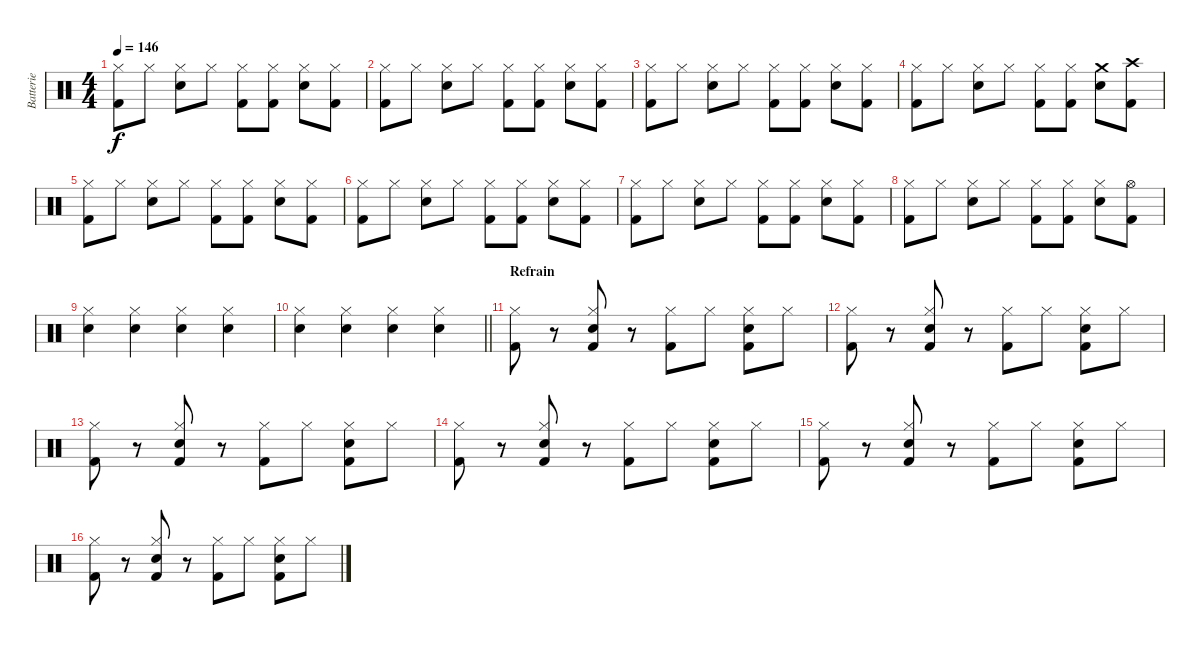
\track ("Batterie" "Batterie") {instrument percussion}
\staff {score}
\articulation defaults
\ts (4 4)
\tempo 146
\clef neutral
\ks c
("Kick (hit) 2" "Hi-Hat (closed)").8{dy f} "Hi-Hat (closed)".8 ("Snare (hit) 2" "Hi-Hat (closed)").8 "Hi-Hat (closed)".8 ("Kick (hit) 2" "Hi-Hat (closed)").8 ("Kick (hit) 2" "Hi-Hat (closed)").8 ("Snare (hit) 2" "Hi-Hat (closed)").8 ("Kick (hit) 2" "Hi-Hat (closed)").8 |
("Kick (hit) 2" "Hi-Hat (closed)").8 "Hi-Hat (closed)".8 ("Snare (hit) 2" "Hi-Hat (closed)").8 "Hi-Hat (closed)".8 ("Kick (hit) 2" "Hi-Hat (closed)").8 ("Kick (hit) 2" "Hi-Hat (closed)").8 ("Snare (hit) 2" "Hi-Hat (closed)").8 ("Kick (hit) 2" "Hi-Hat (closed)").8 |
("Kick (hit) 2" "Hi-Hat (closed)").8 "Hi-Hat (closed)".8 ("Snare (hit) 2" "Hi-Hat (closed)").8 "Hi-Hat (closed)".8 ("Kick (hit) 2" "Hi-Hat (closed)").8 ("Kick (hit) 2" "Hi-Hat (closed)").8 ("Snare (hit) 2" "Hi-Hat (closed)").8 ("Kick (hit) 2" "Hi-Hat (closed)").8 |
("Kick (hit) 2" "Hi-Hat (closed)").8 "Hi-Hat (closed)".8 ("Snare (hit) 2" "Hi-Hat (closed)").8 "Hi-Hat (closed)".8 ("Kick (hit) 2" "Hi-Hat (closed)").8 ("Kick (hit) 2" "Hi-Hat (closed)").8 ("Snare (hit) 2" "Crash medium (hit)").8 ("Kick (hit) 2" "Crash high (hit)").8 |
("Kick (hit) 2" "Hi-Hat (closed)").8 "Hi-Hat (closed)".8 ("Snare (hit) 2" "Hi-Hat (closed)").8 "Hi-Hat (closed)".8 ("Kick (hit) 2" "Hi-Hat (closed)").8 ("Kick (hit) 2" "Hi-Hat (closed)").8 ("Snare (hit) 2" "Hi-Hat (closed)").8 ("Kick (hit) 2" "Hi-Hat (closed)").8 |
("Kick (hit) 2" "Hi-Hat (closed)").8 "Hi-Hat (closed)".8 ("Snare (hit) 2" "Hi-Hat (closed)").8 "Hi-Hat (closed)".8 ("Kick (hit) 2" "Hi-Hat (closed)").8 ("Kick (hit) 2" "Hi-Hat (closed)").8 ("Snare (hit) 2" "Hi-Hat (closed)").8 ("Kick (hit) 2" "Hi-Hat (closed)").8 |
("Kick (hit) 2" "Hi-Hat (closed)").8 "Hi-Hat (closed)".8 ("Snare (hit) 2" "Hi-Hat (closed)").8 "Hi-Hat (closed)".8 ("Kick (hit) 2" "Hi-Hat (closed)").8 ("Kick (hit) 2" "Hi-Hat (closed)").8 ("Snare (hit) 2" "Hi-Hat (closed)").8 ("Kick (hit) 2" "Hi-Hat (closed)").8 |
("Kick (hit) 2" "Hi-Hat (closed)").8 "Hi-Hat (closed)".8 ("Snare (hit) 2" "Hi-Hat (closed)").8 "Hi-Hat (closed)".8 ("Kick (hit) 2" "Hi-Hat (closed)").8 ("Kick (hit) 2" "Hi-Hat (closed)").8 ("Snare (hit) 2" "Hi-Hat (closed)").8 ("Kick (hit) 2" "Hi-Hat (open)").8 |
("Snare (hit) 2" "Hi-Hat (closed)").4 ("Snare (hit) 2" "Hi-Hat (closed)").4 ("Snare (hit) 2" "Hi-Hat (closed)").4 ("Snare (hit) 2" "Hi-Hat (closed)").4 |
\barLineRight lightlight
("Snare (hit) 2" "Hi-Hat (closed)").4 ("Snare (hit) 2" "Hi-Hat (closed)").4 ("Snare (hit) 2" "Hi-Hat (closed)").4 ("Snare (hit) 2" "Hi-Hat (closed)").4 |
\section ("" "Refrain")
("Kick (hit) 2" "Hi-Hat (closed)").8 r.8 ("Kick (hit) 2" "Snare (hit) 2" "Hi-Hat (closed)").8 r.8 ("Kick (hit) 2" "Hi-Hat (closed)").8 "Hi-Hat (closed)".8 ("Kick (hit) 2" "Snare (hit) 2" "Hi-Hat (closed)").8 "Hi-Hat (closed)".8 |
("Kick (hit) 2" "Hi-Hat (closed)").8 r.8 ("Kick (hit) 2" "Snare (hit) 2" "Hi-Hat (closed)").8 r.8 ("Kick (hit) 2" "Hi-Hat (closed)").8 "Hi-Hat (closed)".8 ("Kick (hit) 2" "Snare (hit) 2" "Hi-Hat (closed)").8 "Hi-Hat (closed)".8 |
("Kick (hit) 2" "Hi-Hat (closed)").8 r.8 ("Kick (hit) 2" "Snare (hit) 2" "Hi-Hat (closed)").8 r.8 ("Kick (hit) 2" "Hi-Hat (closed)").8 "Hi-Hat (closed)".8 ("Kick (hit) 2" "Snare (hit) 2" "Hi-Hat (closed)").8 "Hi-Hat (closed)".8 |
("Kick (hit) 2" "Hi-Hat (closed)").8 r.8 ("Kick (hit) 2" "Snare (hit) 2" "Hi-Hat (closed)").8 r.8 ("Kick (hit) 2" "Hi-Hat (closed)").8 "Hi-Hat (closed)".8 ("Kick (hit) 2" "Snare (hit) 2" "Hi-Hat (closed)").8 "Hi-Hat (closed)".8 |
("Kick (hit) 2" "Hi-Hat (closed)").8 r.8 ("Kick (hit) 2" "Snare (hit) 2" "Hi-Hat (closed)").8 r.8 ("Kick (hit) 2" "Hi-Hat (closed)").8 "Hi-Hat (closed)".8 ("Kick (hit) 2" "Snare (hit) 2" "Hi-Hat (closed)").8 "Hi-Hat (closed)".8 |
("Kick (hit) 2" "Hi-Hat (closed)").8 r.8 ("Kick (hit) 2" "Snare (hit) 2" "Hi-Hat (closed)").8 r.8 ("Kick (hit) 2" "Hi-Hat (closed)").8 "Hi-Hat (closed)".8 ("Kick (hit) 2" "Snare (hit) 2" "Hi-Hat (closed)").8 "Hi-Hat (closed)".8
